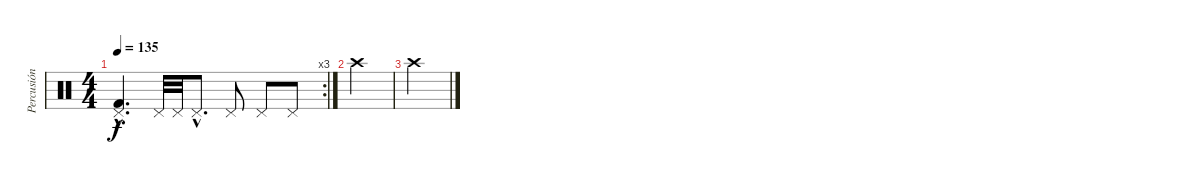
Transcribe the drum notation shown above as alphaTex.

\track ("Percusión Bateria" "Percusión ") {instrument percussion}
\staff {score}
\articulation defaults
\rc 3
\ts (4 4)
\tempo 135
\clef neutral
\ks c
("Pedal Hi-Hat (hit)"{hac} "Kick (hit) 2"{hac}).4{d dy f} "Pedal Hi-Hat (hit)".32 "Pedal Hi-Hat (hit)".32 "Pedal Hi-Hat (hit)"{hac}.8{d} "Pedal Hi-Hat (hit)".8 "Pedal Hi-Hat (hit)".8 "Pedal Hi-Hat (hit)".8 |
"Crash high (hit)".4 |
"Crash high (hit)".4
